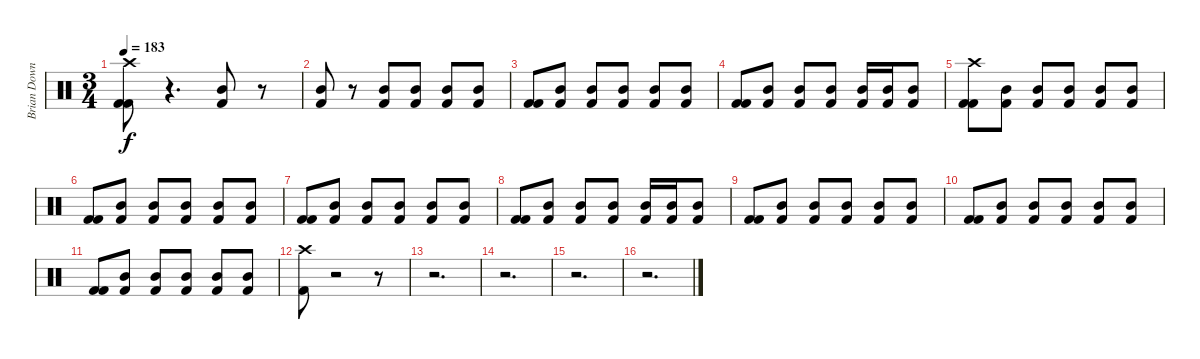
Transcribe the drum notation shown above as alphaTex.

\track ("Brian Downey" "Brian Down") {instrument percussion}
\staff {score}
\articulation defaults
\ts (3 4)
\tempo 183
\clef neutral
\ks c
("Crash high (hit)" "Kick (hit) 2" "Kick (hit) 2").8{dy f} r.4{d} ("Mid Tom (hit)" "Kick (hit) 2").8 r.8 |
("Mid Tom (hit)" "Kick (hit) 2").8 r.8 ("Mid Tom (hit)" "Kick (hit) 2").8 ("Mid Tom (hit)" "Kick (hit) 2").8 ("Mid Tom (hit)" "Kick (hit) 2").8 ("Mid Tom (hit)" "Kick (hit) 2").8 |
("Kick (hit) 2" "Kick (hit) 2").8 ("Mid Tom (hit)" "Kick (hit) 2").8 ("Mid Tom (hit)" "Kick (hit) 2").8 ("Mid Tom (hit)" "Kick (hit) 2").8 ("Mid Tom (hit)" "Kick (hit) 2").8 ("Mid Tom (hit)" "Kick (hit) 2").8 |
("Kick (hit) 2" "Kick (hit) 2").8 ("Mid Tom (hit)" "Kick (hit) 2").8 ("Mid Tom (hit)" "Kick (hit) 2").8 ("Mid Tom (hit)" "Kick (hit) 2").8 ("Mid Tom (hit)" "Kick (hit) 2").16 ("Mid Tom (hit)" "Kick (hit) 2").16 ("Mid Tom (hit)" "Kick (hit) 2").8 |
("Crash high (hit)" "Kick (hit) 2" "Kick (hit) 2").8 ("Mid Tom (hit)" "Kick (hit) 2").8 ("Mid Tom (hit)" "Kick (hit) 2").8 ("Mid Tom (hit)" "Kick (hit) 2").8 ("Mid Tom (hit)" "Kick (hit) 2").8 ("Mid Tom (hit)" "Kick (hit) 2").8 |
("Kick (hit) 2" "Kick (hit) 2").8 ("Mid Tom (hit)" "Kick (hit) 2").8 ("Mid Tom (hit)" "Kick (hit) 2").8 ("Mid Tom (hit)" "Kick (hit) 2").8 ("Mid Tom (hit)" "Kick (hit) 2").8 ("Mid Tom (hit)" "Kick (hit) 2").8 |
("Kick (hit) 2" "Kick (hit) 2").8 ("Mid Tom (hit)" "Kick (hit) 2").8 ("Mid Tom (hit)" "Kick (hit) 2").8 ("Mid Tom (hit)" "Kick (hit) 2").8 ("Mid Tom (hit)" "Kick (hit) 2").8 ("Mid Tom (hit)" "Kick (hit) 2").8 |
("Kick (hit) 2" "Kick (hit) 2").8 ("Mid Tom (hit)" "Kick (hit) 2").8 ("Mid Tom (hit)" "Kick (hit) 2").8 ("Mid Tom (hit)" "Kick (hit) 2").8 ("Mid Tom (hit)" "Kick (hit) 2").16 ("Mid Tom (hit)" "Kick (hit) 2").16 ("Mid Tom (hit)" "Kick (hit) 2").8 |
("Kick (hit) 2" "Kick (hit) 2").8 ("Mid Tom (hit)" "Kick (hit) 2").8 ("Mid Tom (hit)" "Kick (hit) 2").8 ("Mid Tom (hit)" "Kick (hit) 2").8 ("Mid Tom (hit)" "Kick (hit) 2").8 ("Mid Tom (hit)" "Kick (hit) 2").8 |
("Kick (hit) 2" "Kick (hit) 2").8 ("Mid Tom (hit)" "Kick (hit) 2").8 ("Mid Tom (hit)" "Kick (hit) 2").8 ("Mid Tom (hit)" "Kick (hit) 2").8 ("Mid Tom (hit)" "Kick (hit) 2").8 ("Mid Tom (hit)" "Kick (hit) 2").8 |
("Kick (hit) 2" "Kick (hit) 2").8 ("Mid Tom (hit)" "Kick (hit) 2").8 ("Mid Tom (hit)" "Kick (hit) 2").8 ("Mid Tom (hit)" "Kick (hit) 2").8 ("Mid Tom (hit)" "Kick (hit) 2").8 ("Mid Tom (hit)" "Kick (hit) 2").8 |
("Crash high (hit)" "Kick (hit) 2").8 r.2 r.8 |
r.2{d} |
r.2{d} |
r.2{d} |
r.2{d}
